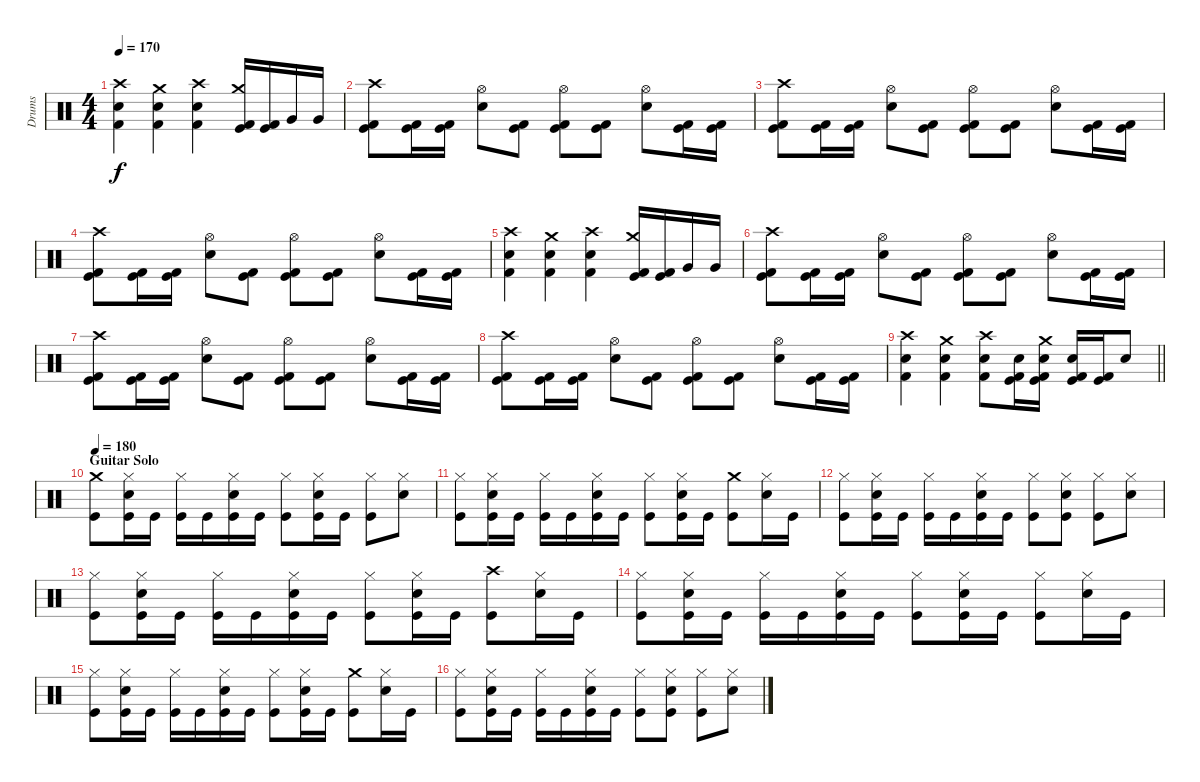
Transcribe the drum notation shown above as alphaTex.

\track ("Drums" "Drums") {instrument percussion}
\staff {score}
\articulation defaults
\ts (4 4)
\tempo 170
\clef neutral
\ks c
("Crash high (hit)" "Snare (hit) 2" "Kick (hit) 2").4{dy f} ("Crash medium (hit)" "Snare (hit) 2" "Kick (hit) 2").4 ("Crash high (hit)" "Snare (hit) 2" "Kick (hit) 2").4 ("Crash medium (hit)" "Kick (hit)" "Kick (hit) 2").16 ("Kick (hit)" "Kick (hit) 2").16 "Very Low Tom (hit)".16 "Very Low Tom (hit)".16 |
("Crash high (hit)" "Kick (hit) 2" "Kick (hit)").8 ("Kick (hit) 2" "Kick (hit)").16 ("Kick (hit) 2" "Kick (hit)").16 ("Hi-Hat (open)" "Snare (hit) 2").8 ("Kick (hit) 2" "Kick (hit)").8 ("Hi-Hat (open)" "Kick (hit) 2" "Kick (hit)").8 ("Kick (hit) 2" "Kick (hit)").8 ("Hi-Hat (open)" "Snare (hit) 2").8 ("Kick (hit) 2" "Kick (hit)").16 ("Kick (hit) 2" "Kick (hit)").16 |
("Crash high (hit)" "Kick (hit) 2" "Kick (hit)").8 ("Kick (hit) 2" "Kick (hit)").16 ("Kick (hit) 2" "Kick (hit)").16 ("Hi-Hat (open)" "Snare (hit) 2").8 ("Kick (hit) 2" "Kick (hit)").8 ("Hi-Hat (open)" "Kick (hit) 2" "Kick (hit)").8 ("Kick (hit) 2" "Kick (hit)").8 ("Hi-Hat (open)" "Snare (hit) 2").8 ("Kick (hit) 2" "Kick (hit)").16 ("Kick (hit) 2" "Kick (hit)").16 |
("Crash high (hit)" "Kick (hit) 2" "Kick (hit)").8 ("Kick (hit) 2" "Kick (hit)").16 ("Kick (hit) 2" "Kick (hit)").16 ("Hi-Hat (open)" "Snare (hit) 2").8 ("Kick (hit) 2" "Kick (hit)").8 ("Hi-Hat (open)" "Kick (hit) 2" "Kick (hit)").8 ("Kick (hit) 2" "Kick (hit)").8 ("Hi-Hat (open)" "Snare (hit) 2").8 ("Kick (hit) 2" "Kick (hit)").16 ("Kick (hit) 2" "Kick (hit)").16 |
("Crash high (hit)" "Snare (hit) 2" "Kick (hit) 2").4 ("Crash medium (hit)" "Snare (hit) 2" "Kick (hit) 2").4 ("Crash high (hit)" "Snare (hit) 2" "Kick (hit) 2").4 ("Crash medium (hit)" "Kick (hit)" "Kick (hit) 2").16 ("Kick (hit)" "Kick (hit) 2").16 "Very Low Tom (hit)".16 "Very Low Tom (hit)".16 |
("Crash high (hit)" "Kick (hit) 2" "Kick (hit)").8 ("Kick (hit) 2" "Kick (hit)").16 ("Kick (hit) 2" "Kick (hit)").16 ("Hi-Hat (open)" "Snare (hit) 2").8 ("Kick (hit) 2" "Kick (hit)").8 ("Hi-Hat (open)" "Kick (hit) 2" "Kick (hit)").8 ("Kick (hit) 2" "Kick (hit)").8 ("Hi-Hat (open)" "Snare (hit) 2").8 ("Kick (hit) 2" "Kick (hit)").16 ("Kick (hit) 2" "Kick (hit)").16 |
("Crash high (hit)" "Kick (hit) 2" "Kick (hit)").8 ("Kick (hit) 2" "Kick (hit)").16 ("Kick (hit) 2" "Kick (hit)").16 ("Hi-Hat (open)" "Snare (hit) 2").8 ("Kick (hit) 2" "Kick (hit)").8 ("Hi-Hat (open)" "Kick (hit) 2" "Kick (hit)").8 ("Kick (hit) 2" "Kick (hit)").8 ("Hi-Hat (open)" "Snare (hit) 2").8 ("Kick (hit) 2" "Kick (hit)").16 ("Kick (hit) 2" "Kick (hit)").16 |
("Crash high (hit)" "Kick (hit) 2" "Kick (hit)").8 ("Kick (hit) 2" "Kick (hit)").16 ("Kick (hit) 2" "Kick (hit)").16 ("Hi-Hat (open)" "Snare (hit) 2").8 ("Kick (hit) 2" "Kick (hit)").8 ("Hi-Hat (open)" "Kick (hit) 2" "Kick (hit)").8 ("Kick (hit) 2" "Kick (hit)").8 ("Hi-Hat (open)" "Snare (hit) 2").8 ("Kick (hit) 2" "Kick (hit)").16 ("Kick (hit) 2" "Kick (hit)").16 |
\barLineRight lightlight
("Crash high (hit)" "Snare (hit) 2" "Kick (hit) 2").4 ("Crash medium (hit)" "Snare (hit) 2" "Kick (hit) 2").4 ("Crash high (hit)" "Snare (hit) 2" "Kick (hit) 2").8 ("Snare (hit) 2" "Kick (hit)" "Kick (hit) 2").16 ("Crash medium (hit)" "Snare (hit) 2" "Kick (hit)" "Kick (hit) 2").16 ("Snare (hit) 2" "Kick (hit)" "Kick (hit) 2").16 ("Kick (hit)" "Kick (hit) 2").16 "Snare (hit) 2".8 |
\section ("" "Guitar Solo")
\tempo 180
("Crash medium (hit)" "Kick (hit)").8 ("Hi-Hat (closed)" "Snare (hit) 2" "Kick (hit)").16 "Kick (hit)".16 ("Hi-Hat (closed)" "Kick (hit)").16 "Kick (hit)".16 ("Hi-Hat (closed)" "Snare (hit) 2" "Kick (hit)").16 "Kick (hit)".16 ("Hi-Hat (closed)" "Kick (hit)").8 ("Hi-Hat (closed)" "Snare (hit) 2" "Kick (hit)").16 "Kick (hit)".16 ("Hi-Hat (closed)" "Kick (hit)").8 ("Hi-Hat (closed)" "Snare (hit) 2").8 |
("Hi-Hat (closed)" "Kick (hit)").8 ("Hi-Hat (closed)" "Snare (hit) 2" "Kick (hit)").16 "Kick (hit)".16 ("Hi-Hat (closed)" "Kick (hit)").16 "Kick (hit)".16 ("Hi-Hat (closed)" "Snare (hit) 2" "Kick (hit)").16 "Kick (hit)".16 ("Hi-Hat (closed)" "Kick (hit)").8 ("Hi-Hat (closed)" "Snare (hit) 2" "Kick (hit)").16 "Kick (hit)".16 ("Crash medium (hit)" "Kick (hit)").8 ("Hi-Hat (closed)" "Snare (hit) 2").16 "Kick (hit)".16 |
("Hi-Hat (closed)" "Kick (hit)").8 ("Hi-Hat (closed)" "Snare (hit) 2" "Kick (hit)").16 "Kick (hit)".16 ("Hi-Hat (closed)" "Kick (hit)").16 "Kick (hit)".16 ("Hi-Hat (closed)" "Snare (hit) 2" "Kick (hit)").16 "Kick (hit)".16 ("Hi-Hat (closed)" "Kick (hit)").8 ("Hi-Hat (closed)" "Snare (hit) 2" "Kick (hit)").8 ("Hi-Hat (closed)" "Kick (hit)").8 ("Hi-Hat (closed)" "Snare (hit) 2").8 |
("Hi-Hat (closed)" "Kick (hit)").8 ("Hi-Hat (closed)" "Snare (hit) 2" "Kick (hit)").16 "Kick (hit)".16 ("Hi-Hat (closed)" "Kick (hit)").16 "Kick (hit)".16 ("Hi-Hat (closed)" "Snare (hit) 2" "Kick (hit)").16 "Kick (hit)".16 ("Hi-Hat (closed)" "Kick (hit)").8 ("Hi-Hat (closed)" "Snare (hit) 2" "Kick (hit)").16 "Kick (hit)".16 ("Crash high (hit)" "Kick (hit)").8 ("Hi-Hat (closed)" "Snare (hit) 2").16 "Kick (hit)".16 |
("Hi-Hat (closed)" "Kick (hit)").8 ("Hi-Hat (closed)" "Snare (hit) 2" "Kick (hit)").16 "Kick (hit)".16 ("Hi-Hat (closed)" "Kick (hit)").16 "Kick (hit)".16 ("Hi-Hat (closed)" "Snare (hit) 2" "Kick (hit)").16 "Kick (hit)".16 ("Hi-Hat (closed)" "Kick (hit)").8 ("Hi-Hat (closed)" "Snare (hit) 2" "Kick (hit)").16 "Kick (hit)".16 ("Hi-Hat (closed)" "Kick (hit)").8 ("Hi-Hat (closed)" "Snare (hit) 2").16 "Kick (hit)".16 |
("Hi-Hat (closed)" "Kick (hit)").8 ("Hi-Hat (closed)" "Snare (hit) 2" "Kick (hit)").16 "Kick (hit)".16 ("Hi-Hat (closed)" "Kick (hit)").16 "Kick (hit)".16 ("Hi-Hat (closed)" "Snare (hit) 2" "Kick (hit)").16 "Kick (hit)".16 ("Hi-Hat (closed)" "Kick (hit)").8 ("Hi-Hat (closed)" "Snare (hit) 2" "Kick (hit)").16 "Kick (hit)".16 ("Crash medium (hit)" "Kick (hit)").8 ("Hi-Hat (closed)" "Snare (hit) 2").16 "Kick (hit)".16 |
("Hi-Hat (closed)" "Kick (hit)").8 ("Hi-Hat (closed)" "Snare (hit) 2" "Kick (hit)").16 "Kick (hit)".16 ("Hi-Hat (closed)" "Kick (hit)").16 "Kick (hit)".16 ("Hi-Hat (closed)" "Snare (hit) 2" "Kick (hit)").16 "Kick (hit)".16 ("Hi-Hat (closed)" "Kick (hit)").8 ("Hi-Hat (closed)" "Snare (hit) 2" "Kick (hit)").8 ("Hi-Hat (closed)" "Kick (hit)").8 ("Hi-Hat (closed)" "Snare (hit) 2").8
